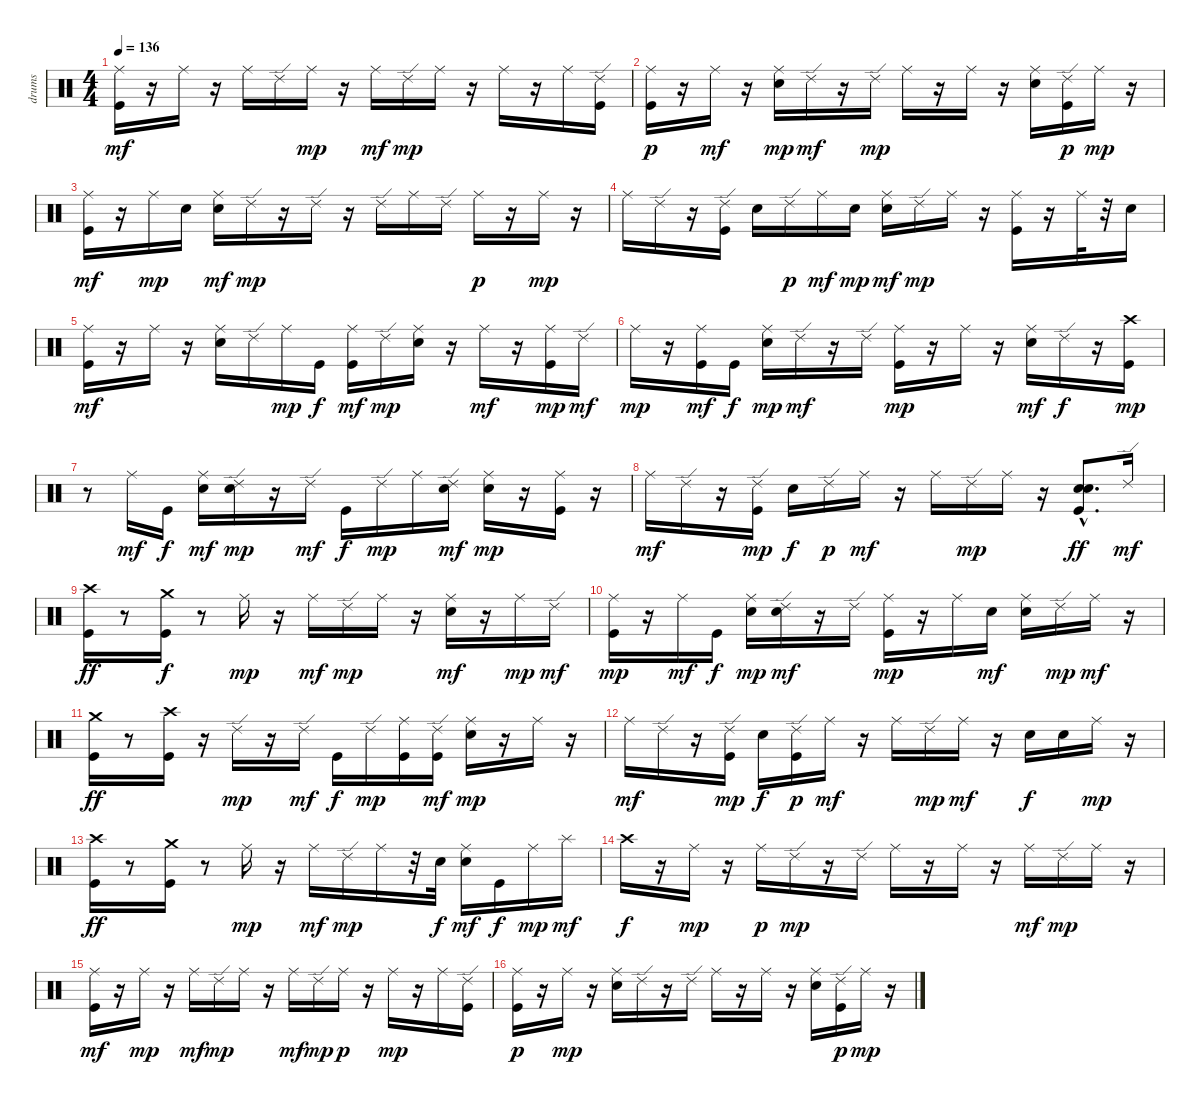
\track ("drums   " "drums   ") {instrument percussion}
\staff {score}
\articulation defaults
\ts (4 4)
\tempo 136
\clef neutral
\ks c
("Kick (hit)" "Ride (middle)").16{dy mf} r.16 "Ride (middle)".16 r.16 "Ride (middle)".16 "Ride (edge) 2".16 "Ride (middle)".16{dy mp} r.16 "Ride (middle)".16{dy mf} "Ride (edge) 2".16{dy mp} "Ride (middle)".16 r.16 "Ride (middle)".16 r.16 "Ride (middle)".16 ("Kick (hit)" "Ride (edge) 2").16 |
("Kick (hit)" "Ride (middle)").16{dy p} r.16 "Ride (middle)".16{dy mf} r.16 ("Electric Snare (hit)" "Ride (middle)").16{dy mp} "Ride (edge) 2".16{dy mf} r.16 "Ride (edge) 2".16{dy mp} "Ride (middle)".16 r.16 "Ride (middle)".16 r.16 ("Electric Snare (hit)" "Ride (middle)").16 ("Kick (hit)" "Ride (edge) 2").16{dy p} "Ride (middle)".16{dy mp} r.16 |
("Kick (hit)" "Ride (middle)").16{dy mf} r.16 "Ride (middle)".16{dy mp} "Electric Snare (hit)".16 ("Electric Snare (hit)" "Ride (middle)").16{dy mf} "Ride (edge) 2".16{dy mp} r.16 "Ride (edge) 2".16 r.16 "Ride (edge) 2".16 "Ride (middle)".16 "Ride (edge) 2".16 "Ride (middle)".16{dy p} r.16 "Ride (middle)".16{dy mp} r.16 |
"Ride (middle)".16 "Ride (edge) 2".16 r.16 ("Kick (hit)" "Ride (edge) 2").16 "Electric Snare (hit)".16 "Ride (edge) 2".16{dy p} "Ride (middle)".16{dy mf} "Electric Snare (hit)".16{dy mp} ("Electric Snare (hit)" "Ride (middle)").16{dy mf} "Ride (edge) 2".16{dy mp} "Ride (middle)".16 r.16 ("Kick (hit)" "Ride (middle)").16 r.16 "Ride (middle)".32 r.32 "Electric Snare (hit)".16 |
("Kick (hit)" "Ride (middle)").16{dy mf} r.16 "Ride (middle)".16 r.16 ("Electric Snare (hit)" "Ride (middle)").16 "Ride (edge) 2".16 "Ride (middle)".16{dy mp} "Kick (hit)".16{dy f} ("Kick (hit)" "Ride (middle)").16{dy mf} "Ride (edge) 2".16{dy mp} ("Electric Snare (hit)" "Ride (middle)").16 r.16 "Ride (middle)".16{dy mf} r.16 ("Kick (hit)" "Ride (middle)").16{dy mp} "Ride (edge) 2".16{dy mf} |
"Ride (middle)".16{dy mp} r.16 ("Kick (hit)" "Ride (middle)").16{dy mf} "Kick (hit)".16{dy f} ("Electric Snare (hit)" "Ride (middle)").16{dy mp} "Ride (edge) 2".16{dy mf} r.16 "Ride (edge) 2".16 ("Kick (hit)" "Ride (middle)").16{dy mp} r.16 "Ride (middle)".16 r.16 ("Electric Snare (hit)" "Ride (middle)").16{dy mf} "Ride (edge) 2".16{dy f} r.16 ("Crash high (hit)" "Kick (hit)").16{dy mp} |
r.8 "Ride (middle)".16{dy mf} "Kick (hit)".16{dy f} ("Electric Snare (hit)" "Ride (middle)").16{dy mf} ("Electric Snare (hit)" "Ride (edge) 2").16{dy mp} r.16 "Ride (edge) 2".16{dy mf} "Kick (hit)".16{dy f} "Ride (edge) 2".16{dy mp} "Ride (middle)".16 ("Electric Snare (hit)" "Ride (edge) 2").16{dy mf} ("Electric Snare (hit)" "Ride (middle)").16{dy mp} r.16 ("Kick (hit)" "Ride (middle)").16 r.16 |
"Ride (middle)".16{dy mf} "Ride (edge) 2".16 r.16 ("Kick (hit)" "Ride (edge) 2").16{dy mp} "Electric Snare (hit)".16{dy f} "Ride (edge) 2".16{dy p} "Ride (middle)".16{dy mf} r.16 "Ride (middle)".16 "Ride (edge) 2".16{dy mp} "Ride (middle)".16 r.16 ("Electric Snare (hit)"{hac} "Kick (hit)" "Electric Snare (hit)").8{d dy ff} "Ride (edge) 2".16{dy mf} |
("Kick (hit)" "Crash high (hit)").16{dy ff} r.8 ("Kick (hit)" "Crash medium (hit)").16{dy f} r.8 "Ride (middle)".16{dy mp} r.16 "Ride (middle)".16{dy mf} "Ride (edge) 2".16{dy mp} "Ride (middle)".16 r.16 ("Electric Snare (hit)" "Ride (middle)").16{dy mf} r.16 "Ride (middle)".16{dy mp} "Ride (edge) 2".16{dy mf} |
("Kick (hit)" "Ride (middle)").16{dy mp} r.16 "Ride (middle)".16{dy mf} "Kick (hit)".16{dy f} ("Electric Snare (hit)" "Ride (middle)").16{dy mp} ("Electric Snare (hit)" "Ride (edge) 2").16{dy mf} r.16 "Ride (edge) 2".16 ("Kick (hit)" "Ride (middle)").16{dy mp} r.16 "Ride (middle)".16 "Electric Snare (hit)".16{dy mf} ("Electric Snare (hit)" "Ride (middle)").16 "Ride (edge) 2".16{dy mp} "Ride (middle)".16{dy mf} r.16 |
("Kick (hit)" "Crash medium (hit)").16{dy ff} r.8 ("Kick (hit)" "Crash high (hit)").16 r.16 "Ride (edge) 2".16{dy mp} r.16 "Ride (edge) 2".16{dy mf} "Kick (hit)".16{dy f} "Ride (edge) 2".16{dy mp} ("Kick (hit)" "Ride (middle)").16 ("Kick (hit)" "Ride (edge) 2").16{dy mf} ("Electric Snare (hit)" "Ride (middle)").16{dy mp} r.16 "Ride (middle)".16 r.16 |
"Ride (middle)".16{dy mf} "Ride (edge) 2".16 r.16 ("Kick (hit)" "Ride (edge) 2").16{dy mp} "Electric Snare (hit)".16{dy f} ("Kick (hit)" "Ride (edge) 2").16{dy p} "Ride (middle)".16{dy mf} r.16 "Ride (middle)".16 "Ride (edge) 2".16{dy mp} "Ride (middle)".16{dy mf} r.16 "Electric Snare (hit)".16{dy f} "Electric Snare (hit)".16 "Ride (middle)".16{dy mp} r.16 |
("Kick (hit)" "Crash high (hit)").16{dy ff} r.8 ("Kick (hit)" "Crash medium (hit)").16 r.8 "Ride (middle)".16{dy mp} r.16 "Ride (middle)".16{dy mf} "Ride (edge) 2".16{dy mp} "Ride (middle)".16 r.32 "Electric Snare (hit)".32{dy f} ("Electric Snare (hit)" "Ride (middle)").16{dy mf} "Kick (hit)".16{dy f} "Ride (middle)".16{dy mp} "Splash (hit)".16{dy mf} |
"Crash high (hit)".16{dy f} r.16 "Ride (middle)".16{dy mp} r.16 "Ride (middle)".16{dy p} "Ride (edge) 2".16{dy mp} r.16 "Ride (edge) 2".16 "Ride (middle)".16 r.16 "Ride (middle)".16 r.16 "Ride (middle)".16{dy mf} "Ride (edge) 2".16{dy mp} "Ride (middle)".16 r.16 |
("Kick (hit)" "Ride (middle)").16{dy mf} r.16 "Ride (middle)".16{dy mp} r.16 "Ride (middle)".16{dy mf} "Ride (edge) 2".16{dy mp} "Ride (middle)".16 r.16 "Ride (middle)".16{dy mf} "Ride (edge) 2".16{dy mp} "Ride (middle)".16{dy p} r.16 "Ride (middle)".16{dy mp} r.16 "Ride (middle)".16 ("Kick (hit)" "Ride (edge) 2").16 |
("Kick (hit)" "Ride (middle)").16{dy p} r.16 "Ride (middle)".16{dy mp} r.16 ("Electric Snare (hit)" "Ride (middle)").16 "Ride (edge) 2".16 r.16 "Ride (edge) 2".16 "Ride (middle)".16 r.16 "Ride (middle)".16 r.16 ("Electric Snare (hit)" "Ride (middle)").16 ("Kick (hit)" "Ride (edge) 2").16{dy p} "Ride (middle)".16{dy mp} r.16
